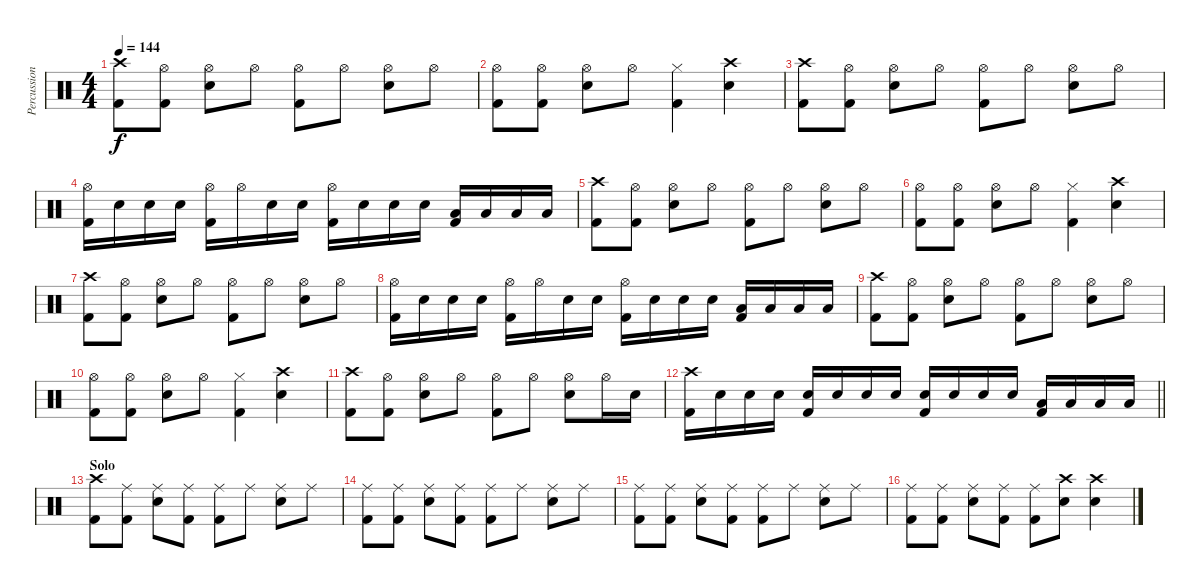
\track ("Percussion" "Percussion") {instrument percussion}
\staff {score}
\articulation defaults
\ts (4 4)
\tempo 144
\clef neutral
\ks c
("Crash high (hit)" "Kick (hit) 2").8{dy f} ("Hi-Hat (open)" "Kick (hit) 2").8 ("Hi-Hat (open)" "Electric Snare (hit)").8 "Hi-Hat (open)".8 ("Hi-Hat (open)" "Kick (hit) 2").8 "Hi-Hat (open)".8 ("Hi-Hat (open)" "Electric Snare (hit)").8 "Hi-Hat (open)".8 |
("Hi-Hat (open)" "Kick (hit) 2").8 ("Hi-Hat (open)" "Kick (hit) 2").8 ("Hi-Hat (open)" "Electric Snare (hit)").8 "Hi-Hat (open)".8 ("Hi-Hat (closed)" "Kick (hit) 2").4 ("Crash high (hit)" "Electric Snare (hit)").4 |
("Crash high (hit)" "Kick (hit) 2").8 ("Hi-Hat (open)" "Kick (hit) 2").8 ("Hi-Hat (open)" "Electric Snare (hit)").8 "Hi-Hat (open)".8 ("Hi-Hat (open)" "Kick (hit) 2").8 "Hi-Hat (open)".8 ("Hi-Hat (open)" "Electric Snare (hit)").8 "Hi-Hat (open)".8 |
("Hi-Hat (open)" "Kick (hit) 2").16 "Electric Snare (hit)".16 "Electric Snare (hit)".16 "Electric Snare (hit)".16 ("Hi-Hat (open)" "Kick (hit) 2").16 "Hi-Hat (open)".16 "Electric Snare (hit)".16 "Electric Snare (hit)".16 ("Hi-Hat (open)" "Kick (hit) 2").16 "Electric Snare (hit)".16 "Electric Snare (hit)".16 "Electric Snare (hit)".16 ("Low Tom (hit)" "Kick (hit) 2").16 "Low Tom (hit)".16 "Low Tom (hit)".16 "Low Tom (hit)".16 |
("Crash high (hit)" "Kick (hit) 2").8 ("Hi-Hat (open)" "Kick (hit) 2").8 ("Hi-Hat (open)" "Electric Snare (hit)").8 "Hi-Hat (open)".8 ("Hi-Hat (open)" "Kick (hit) 2").8 "Hi-Hat (open)".8 ("Hi-Hat (open)" "Electric Snare (hit)").8 "Hi-Hat (open)".8 |
("Hi-Hat (open)" "Kick (hit) 2").8 ("Hi-Hat (open)" "Kick (hit) 2").8 ("Hi-Hat (open)" "Electric Snare (hit)").8 "Hi-Hat (open)".8 ("Hi-Hat (closed)" "Kick (hit) 2").4 ("Crash high (hit)" "Electric Snare (hit)").4 |
("Crash high (hit)" "Kick (hit) 2").8 ("Hi-Hat (open)" "Kick (hit) 2").8 ("Hi-Hat (open)" "Electric Snare (hit)").8 "Hi-Hat (open)".8 ("Hi-Hat (open)" "Kick (hit) 2").8 "Hi-Hat (open)".8 ("Hi-Hat (open)" "Electric Snare (hit)").8 "Hi-Hat (open)".8 |
("Hi-Hat (open)" "Kick (hit) 2").16 "Electric Snare (hit)".16 "Electric Snare (hit)".16 "Electric Snare (hit)".16 ("Hi-Hat (open)" "Kick (hit) 2").16 "Hi-Hat (open)".16 "Electric Snare (hit)".16 "Electric Snare (hit)".16 ("Hi-Hat (open)" "Kick (hit) 2").16 "Electric Snare (hit)".16 "Electric Snare (hit)".16 "Electric Snare (hit)".16 ("Low Tom (hit)" "Kick (hit) 2").16 "Low Tom (hit)".16 "Low Tom (hit)".16 "Low Tom (hit)".16 |
("Crash high (hit)" "Kick (hit) 2").8 ("Hi-Hat (open)" "Kick (hit) 2").8 ("Hi-Hat (open)" "Electric Snare (hit)").8 "Hi-Hat (open)".8 ("Hi-Hat (open)" "Kick (hit) 2").8 "Hi-Hat (open)".8 ("Hi-Hat (open)" "Electric Snare (hit)").8 "Hi-Hat (open)".8 |
("Hi-Hat (open)" "Kick (hit) 2").8 ("Hi-Hat (open)" "Kick (hit) 2").8 ("Hi-Hat (open)" "Electric Snare (hit)").8 "Hi-Hat (open)".8 ("Hi-Hat (closed)" "Kick (hit) 2").4 ("Crash high (hit)" "Electric Snare (hit)").4 |
("Crash high (hit)" "Kick (hit) 2").8 ("Hi-Hat (open)" "Kick (hit) 2").8 ("Hi-Hat (open)" "Electric Snare (hit)").8 "Hi-Hat (open)".8 ("Hi-Hat (open)" "Kick (hit) 2").8 "Hi-Hat (open)".8 ("Hi-Hat (open)" "Electric Snare (hit)").8 "Hi-Hat (open)".16 "Electric Snare (hit)".16 |
\barLineRight lightlight
("Crash high (hit)" "Kick (hit) 2").16 "Electric Snare (hit)".16 "Electric Snare (hit)".16 "Electric Snare (hit)".16 ("Electric Snare (hit)" "Kick (hit) 2").16 "Electric Snare (hit)".16 "Electric Snare (hit)".16 "Electric Snare (hit)".16 ("Electric Snare (hit)" "Kick (hit) 2").16 "Electric Snare (hit)".16 "Electric Snare (hit)".16 "Electric Snare (hit)".16 ("Low Tom (hit)" "Kick (hit) 2").16 "Low Tom (hit)".16 "Low Tom (hit)".16 "Low Tom (hit)".16 |
\section ("" "Solo")
("Crash high (hit)" "Kick (hit) 2").8 ("Ride (middle)" "Kick (hit) 2").8 ("Ride (middle)" "Electric Snare (hit)").8 ("Ride (middle)" "Kick (hit) 2").8 ("Ride (middle)" "Kick (hit) 2").8 "Ride (middle)".8 ("Ride (middle)" "Electric Snare (hit)").8 "Ride (middle)".8 |
("Ride (middle)" "Kick (hit) 2").8 ("Ride (middle)" "Kick (hit) 2").8 ("Ride (middle)" "Electric Snare (hit)").8 ("Ride (middle)" "Kick (hit) 2").8 ("Ride (middle)" "Kick (hit) 2").8 "Ride (middle)".8 ("Ride (middle)" "Electric Snare (hit)").8 "Ride (middle)".8 |
("Ride (middle)" "Kick (hit) 2").8 ("Ride (middle)" "Kick (hit) 2").8 ("Ride (middle)" "Electric Snare (hit)").8 ("Ride (middle)" "Kick (hit) 2").8 ("Ride (middle)" "Kick (hit) 2").8 "Ride (middle)".8 ("Ride (middle)" "Electric Snare (hit)").8 "Ride (middle)".8 |
("Ride (middle)" "Kick (hit) 2").8 ("Ride (middle)" "Kick (hit) 2").8 ("Ride (middle)" "Electric Snare (hit)").8 ("Ride (middle)" "Kick (hit) 2").8 ("Ride (middle)" "Kick (hit) 2").8 ("Crash high (hit)" "Electric Snare (hit)").8 ("Crash high (hit)" "Electric Snare (hit)").4
